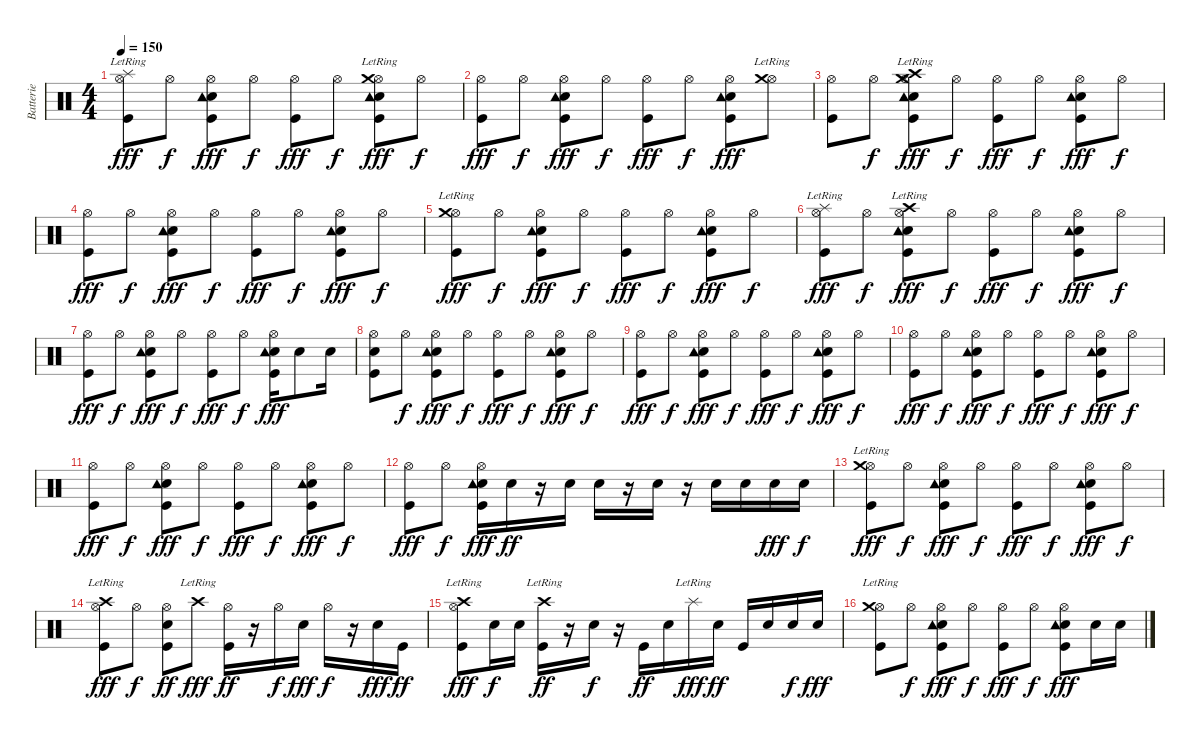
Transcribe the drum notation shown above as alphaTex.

\track ("Batterie" "Batterie") {instrument percussion}
\staff {score}
\articulation defaults
\ts (4 4)
\tempo 150
\clef neutral
\ks c
("Hi-Hat (open)" "Kick (hit)" "Splash (hit)"{lr}).8{dy fff} "Hi-Hat (open)".8{dy f} ("Hi-Hat (open)" "Kick (hit)" "Electric Snare (hit)" "Tambourine (hit)").8{dy fff} "Hi-Hat (open)".8{dy f} ("Hi-Hat (open)" "Kick (hit)").8{dy fff} "Hi-Hat (open)".8{dy f} ("Hi-Hat (open)" "Kick (hit)" "Electric Snare (hit)" "Tambourine (hit)" "Crash medium (hit)"{lr}).8{dy fff} "Hi-Hat (open)".8{dy f} |
("Hi-Hat (open)" "Kick (hit)").8{dy fff} "Hi-Hat (open)".8{dy f} ("Hi-Hat (open)" "Kick (hit)" "Electric Snare (hit)" "Tambourine (hit)").8{dy fff} "Hi-Hat (open)".8{dy f} ("Hi-Hat (open)" "Kick (hit)").8{dy fff} "Hi-Hat (open)".8{dy f} ("Hi-Hat (open)" "Kick (hit)" "Electric Snare (hit)" "Tambourine (hit)").8{dy fff} ("Hi-Hat (open)" "Crash medium (hit)"{lr}).8 |
("Hi-Hat (open)" "Kick (hit)").8 "Hi-Hat (open)".8{dy f} ("Hi-Hat (open)" "Kick (hit)" "Electric Snare (hit)" "Tambourine (hit)" "Crash medium (hit)"{lr} "Crash high (hit)"{lr}).8{dy fff} "Hi-Hat (open)".8{dy f} ("Hi-Hat (open)" "Kick (hit)").8{dy fff} "Hi-Hat (open)".8{dy f} ("Hi-Hat (open)" "Kick (hit)" "Electric Snare (hit)" "Tambourine (hit)").8{dy fff} "Hi-Hat (open)".8{dy f} |
("Hi-Hat (open)" "Kick (hit)").8{dy fff} "Hi-Hat (open)".8{dy f} ("Hi-Hat (open)" "Kick (hit)" "Electric Snare (hit)" "Tambourine (hit)").8{dy fff} "Hi-Hat (open)".8{dy f} ("Hi-Hat (open)" "Kick (hit)").8{dy fff} "Hi-Hat (open)".8{dy f} ("Hi-Hat (open)" "Kick (hit)" "Electric Snare (hit)" "Tambourine (hit)").8{dy fff} "Hi-Hat (open)".8{dy f} |
("Hi-Hat (open)" "Kick (hit)" "Crash medium (hit)"{lr}).8{dy fff} "Hi-Hat (open)".8{dy f} ("Hi-Hat (open)" "Kick (hit)" "Electric Snare (hit)" "Tambourine (hit)").8{dy fff} "Hi-Hat (open)".8{dy f} ("Hi-Hat (open)" "Kick (hit)").8{dy fff} "Hi-Hat (open)".8{dy f} ("Hi-Hat (open)" "Kick (hit)" "Electric Snare (hit)" "Tambourine (hit)").8{dy fff} "Hi-Hat (open)".8{dy f} |
("Hi-Hat (open)" "Kick (hit)" "Splash (hit)"{lr}).8{dy fff} "Hi-Hat (open)".8{dy f} ("Hi-Hat (open)" "Kick (hit)" "Electric Snare (hit)" "Tambourine (hit)" "Crash high (hit)"{lr}).8{dy fff} "Hi-Hat (open)".8{dy f} ("Hi-Hat (open)" "Kick (hit)").8{dy fff} "Hi-Hat (open)".8{dy f} ("Hi-Hat (open)" "Kick (hit)" "Electric Snare (hit)" "Tambourine (hit)").8{dy fff} "Hi-Hat (open)".8{dy f} |
("Hi-Hat (open)" "Kick (hit)").8{dy fff} "Hi-Hat (open)".8{dy f} ("Hi-Hat (open)" "Kick (hit)" "Electric Snare (hit)" "Tambourine (hit)").8{dy fff} "Hi-Hat (open)".8{dy f} ("Hi-Hat (open)" "Kick (hit)").8{dy fff} "Hi-Hat (open)".8{dy f} ("Hi-Hat (open)" "Kick (hit)" "Electric Snare (hit)" "Tambourine (hit)").16{dy fff} "Electric Snare (hit)".8 "Electric Snare (hit)".16 |
("Hi-Hat (open)" "Kick (hit)" "Electric Snare (hit)").8 "Hi-Hat (open)".8{dy f} ("Hi-Hat (open)" "Kick (hit)" "Electric Snare (hit)" "Tambourine (hit)").8{dy fff} "Hi-Hat (open)".8{dy f} ("Hi-Hat (open)" "Kick (hit)").8{dy fff} "Hi-Hat (open)".8{dy f} ("Hi-Hat (open)" "Kick (hit)" "Electric Snare (hit)" "Tambourine (hit)").8{dy fff} "Hi-Hat (open)".8{dy f} |
("Hi-Hat (open)" "Kick (hit)").8{dy fff} "Hi-Hat (open)".8{dy f} ("Hi-Hat (open)" "Kick (hit)" "Electric Snare (hit)" "Tambourine (hit)").8{dy fff} "Hi-Hat (open)".8{dy f} ("Hi-Hat (open)" "Kick (hit)").8{dy fff} "Hi-Hat (open)".8{dy f} ("Hi-Hat (open)" "Kick (hit)" "Electric Snare (hit)" "Tambourine (hit)").8{dy fff} "Hi-Hat (open)".8{dy f} |
("Hi-Hat (open)" "Kick (hit)").8{dy fff} "Hi-Hat (open)".8{dy f} ("Hi-Hat (open)" "Kick (hit)" "Electric Snare (hit)" "Tambourine (hit)").8{dy fff} "Hi-Hat (open)".8{dy f} ("Hi-Hat (open)" "Kick (hit)").8{dy fff} "Hi-Hat (open)".8{dy f} ("Hi-Hat (open)" "Kick (hit)" "Electric Snare (hit)" "Tambourine (hit)").8{dy fff} "Hi-Hat (open)".8{dy f} |
("Hi-Hat (open)" "Kick (hit)").8{dy fff} "Hi-Hat (open)".8{dy f} ("Hi-Hat (open)" "Kick (hit)" "Electric Snare (hit)" "Tambourine (hit)").8{dy fff} "Hi-Hat (open)".8{dy f} ("Hi-Hat (open)" "Kick (hit)").8{dy fff} "Hi-Hat (open)".8{dy f} ("Hi-Hat (open)" "Kick (hit)" "Electric Snare (hit)" "Tambourine (hit)").8{dy fff} "Hi-Hat (open)".8{dy f} |
("Hi-Hat (open)" "Kick (hit)").8{dy fff} "Hi-Hat (open)".8{dy f} ("Hi-Hat (open)" "Kick (hit)" "Electric Snare (hit)" "Tambourine (hit)").16{dy fff} "Electric Snare (hit)".16{dy ff} r.16 "Electric Snare (hit)".16 "Electric Snare (hit)".16 r.16 "Electric Snare (hit)".16 r.16 "Electric Snare (hit)".16 "Electric Snare (hit)".16 "Electric Snare (hit)".16{dy fff} "Electric Snare (hit)".16{dy f} |
("Hi-Hat (open)" "Kick (hit)" "Crash medium (hit)"{lr}).8{dy fff} "Hi-Hat (open)".8{dy f} ("Hi-Hat (open)" "Kick (hit)" "Electric Snare (hit)" "Tambourine (hit)").8{dy fff} "Hi-Hat (open)".8{dy f} ("Hi-Hat (open)" "Kick (hit)").8{dy fff} "Hi-Hat (open)".8{dy f} ("Hi-Hat (open)" "Kick (hit)" "Electric Snare (hit)" "Tambourine (hit)").8{dy fff} "Hi-Hat (open)".8{dy f} |
("Hi-Hat (open)" "Kick (hit)" "Crash high (hit)"{lr}).8{dy fff} "Hi-Hat (open)".8{dy f} ("Hi-Hat (open)" "Kick (hit)" "Electric Snare (hit)").8{dy ff} "Crash high (hit)"{lr}.8{dy fff} ("Hi-Hat (open)" "Kick (hit)").16{dy ff} r.16 "Hi-Hat (open)".16{dy f} "Electric Snare (hit)".16{dy fff} "Hi-Hat (open)".16{dy f} r.16 "Electric Snare (hit)".16{dy fff} "Kick (hit)".16{dy ff} |
("Hi-Hat (open)" "Kick (hit)" "Crash high (hit)"{lr}).8{dy fff} "Electric Snare (hit)".16{dy f} "Electric Snare (hit)".16 ("Crash high (hit)"{lr} "Kick (hit)").16{dy ff} r.16 "Electric Snare (hit)".16{dy f} r.16 "Kick (hit)".16{dy ff} "Electric Snare (hit)".16 "Splash (hit)"{lr}.16{dy fff} "Electric Snare (hit)".16{dy ff} "Kick (hit)".16 "Electric Snare (hit)".16 "Electric Snare (hit)".16{dy f} "Electric Snare (hit)".16{dy fff} |
("Hi-Hat (open)" "Kick (hit)" "Crash medium (hit)"{lr}).8 "Hi-Hat (open)".8{dy f} ("Hi-Hat (open)" "Kick (hit)" "Electric Snare (hit)" "Tambourine (hit)").8{dy fff} "Hi-Hat (open)".8{dy f} ("Hi-Hat (open)" "Kick (hit)").8{dy fff} "Hi-Hat (open)".8{dy f} ("Hi-Hat (open)" "Kick (hit)" "Electric Snare (hit)" "Tambourine (hit)").8{dy fff} "Electric Snare (hit)".16 "Electric Snare (hit)".16
